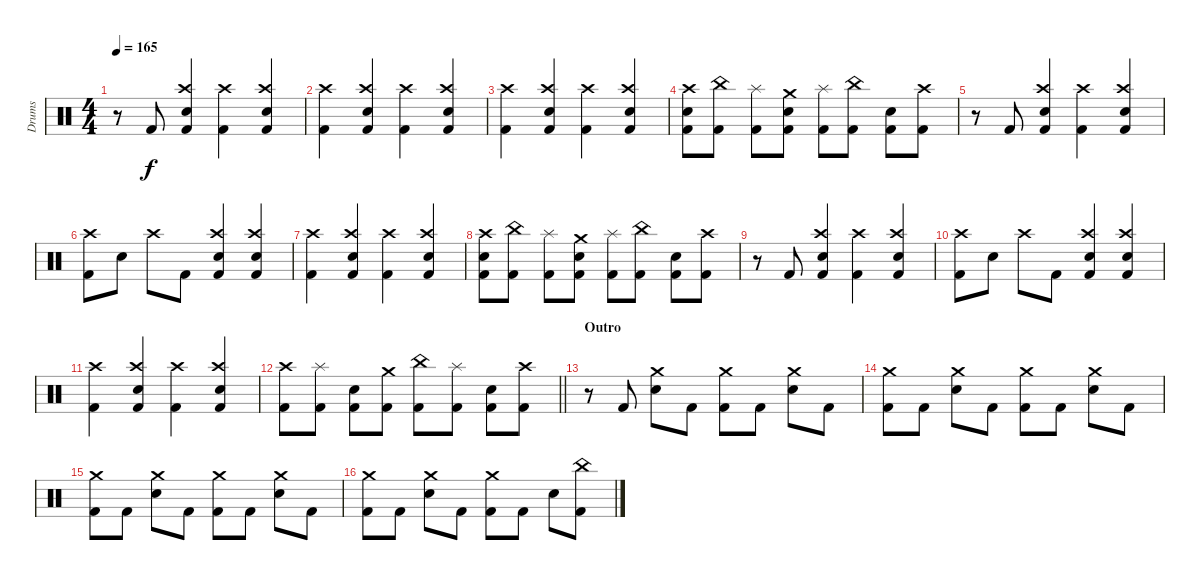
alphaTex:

\track ("Drums" "Drums") {instrument percussion}
\staff {score}
\articulation defaults
\ts (4 4)
\tempo 165
\clef neutral
\ks c
r.8{dy f} "Kick (hit) 2".8 ("Crash high (hit)" "Electric Snare (hit)" "Kick (hit) 2").4 ("Crash high (hit)" "Kick (hit) 2").4 ("Crash high (hit)" "Electric Snare (hit)" "Kick (hit) 2").4 |
("Crash high (hit)" "Kick (hit) 2").4 ("Crash high (hit)" "Electric Snare (hit)" "Kick (hit) 2").4 ("Crash high (hit)" "Kick (hit) 2").4 ("Crash high (hit)" "Electric Snare (hit)" "Kick (hit) 2").4 |
("Crash high (hit)" "Kick (hit) 2").4 ("Crash high (hit)" "Electric Snare (hit)" "Kick (hit) 2").4 ("Crash high (hit)" "Kick (hit) 2").4 ("Crash high (hit)" "Electric Snare (hit)" "Kick (hit) 2").4 |
("Crash high (hit)" "Electric Snare (hit)" "Kick (hit) 2").8 ("China (hit)" "Kick (hit) 2").8 ("Splash (hit)" "Kick (hit) 2").8 ("Crash medium (hit)" "Electric Snare (hit)" "Kick (hit) 2").8 ("Splash (hit)" "Kick (hit) 2").8 ("China (hit)" "Kick (hit) 2").8 ("Electric Snare (hit)" "Kick (hit) 2").8 ("Crash high (hit)" "Kick (hit) 2").8 |
r.8 "Kick (hit) 2".8 ("Crash high (hit)" "Electric Snare (hit)" "Kick (hit) 2").4 ("Crash high (hit)" "Kick (hit) 2").4 ("Crash high (hit)" "Electric Snare (hit)" "Kick (hit) 2").4 |
("Crash high (hit)" "Kick (hit) 2").8 "Electric Snare (hit)".8 "Crash high (hit)".8 "Kick (hit) 2".8 ("Crash high (hit)" "Electric Snare (hit)" "Kick (hit) 2").4 ("Crash high (hit)" "Electric Snare (hit)" "Kick (hit) 2").4 |
("Crash high (hit)" "Kick (hit) 2").4 ("Crash high (hit)" "Electric Snare (hit)" "Kick (hit) 2").4 ("Crash high (hit)" "Kick (hit) 2").4 ("Crash high (hit)" "Electric Snare (hit)" "Kick (hit) 2").4 |
("Crash high (hit)" "Electric Snare (hit)" "Kick (hit) 2").8 ("China (hit)" "Kick (hit) 2").8 ("Splash (hit)" "Kick (hit) 2").8 ("Crash medium (hit)" "Electric Snare (hit)" "Kick (hit) 2").8 ("Splash (hit)" "Kick (hit) 2").8 ("China (hit)" "Kick (hit) 2").8 ("Electric Snare (hit)" "Kick (hit) 2").8 ("Crash high (hit)" "Kick (hit) 2").8 |
r.8 "Kick (hit) 2".8 ("Crash high (hit)" "Electric Snare (hit)" "Kick (hit) 2").4 ("Crash high (hit)" "Kick (hit) 2").4 ("Crash high (hit)" "Electric Snare (hit)" "Kick (hit) 2").4 |
("Crash high (hit)" "Kick (hit) 2").8 "Electric Snare (hit)".8 "Crash high (hit)".8 "Kick (hit) 2".8 ("Crash high (hit)" "Electric Snare (hit)" "Kick (hit) 2").4 ("Crash high (hit)" "Electric Snare (hit)" "Kick (hit) 2").4 |
("Crash high (hit)" "Kick (hit) 2").4 ("Crash high (hit)" "Electric Snare (hit)" "Kick (hit) 2").4 ("Crash high (hit)" "Kick (hit) 2").4 ("Crash high (hit)" "Electric Snare (hit)" "Kick (hit) 2").4 |
\barLineRight lightlight
("Crash high (hit)" "Kick (hit) 2").8 ("Splash (hit)" "Kick (hit) 2").8 ("Electric Snare (hit)" "Kick (hit) 2").8 ("Crash medium (hit)" "Kick (hit) 2").8 ("China (hit)" "Kick (hit) 2").8 ("Splash (hit)" "Kick (hit) 2").8 ("Electric Snare (hit)" "Kick (hit) 2").8 ("Crash high (hit)" "Kick (hit) 2").8 |
\section ("" "Outro")
r.8 "Kick (hit) 2".8 ("Crash medium (hit)" "Electric Snare (hit)").8 "Kick (hit) 2".8 ("Crash medium (hit)" "Kick (hit) 2").8 "Kick (hit) 2".8 ("Crash medium (hit)" "Electric Snare (hit)").8 "Kick (hit) 2".8 |
("Crash medium (hit)" "Kick (hit) 2").8 "Kick (hit) 2".8 ("Crash medium (hit)" "Electric Snare (hit)").8 "Kick (hit) 2".8 ("Crash medium (hit)" "Kick (hit) 2").8 "Kick (hit) 2".8 ("Crash medium (hit)" "Electric Snare (hit)").8 "Kick (hit) 2".8 |
("Crash medium (hit)" "Kick (hit) 2").8 "Kick (hit) 2".8 ("Crash medium (hit)" "Electric Snare (hit)").8 "Kick (hit) 2".8 ("Crash medium (hit)" "Kick (hit) 2").8 "Kick (hit) 2".8 ("Crash medium (hit)" "Electric Snare (hit)").8 "Kick (hit) 2".8 |
("Crash medium (hit)" "Kick (hit) 2").8 "Kick (hit) 2".8 ("Crash medium (hit)" "Electric Snare (hit)").8 "Kick (hit) 2".8 ("Crash medium (hit)" "Kick (hit) 2").8 "Kick (hit) 2".8 "Electric Snare (hit)".8 ("China (hit)" "Kick (hit) 2").8
